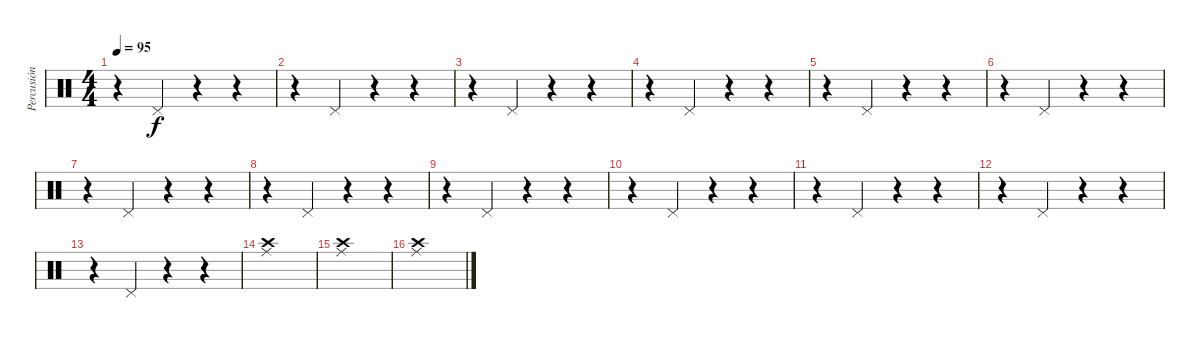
\track ("Percusión" "Percusión") {instrument percussion}
\staff {score}
\articulation defaults
\ts (4 4)
\tempo 95
\clef neutral
\ks c
r.4{dy f} "Pedal Hi-Hat (hit)".4 r.4 r.4 |
r.4 "Pedal Hi-Hat (hit)".4 r.4 r.4 |
r.4 "Pedal Hi-Hat (hit)".4 r.4 r.4 |
r.4 "Pedal Hi-Hat (hit)".4 r.4 r.4 |
r.4 "Pedal Hi-Hat (hit)".4 r.4 r.4 |
r.4 "Pedal Hi-Hat (hit)".4 r.4 r.4 |
r.4 "Pedal Hi-Hat (hit)".4 r.4 r.4 |
r.4 "Pedal Hi-Hat (hit)".4 r.4 r.4 |
r.4 "Pedal Hi-Hat (hit)".4 r.4 r.4 |
r.4 "Pedal Hi-Hat (hit)".4 r.4 r.4 |
r.4 "Pedal Hi-Hat (hit)".4 r.4 r.4 |
r.4 "Pedal Hi-Hat (hit)".4 r.4 r.4 |
r.4 "Pedal Hi-Hat (hit)".4 r.4 r.4 |
("Crash high (hit)" "Ride (middle)").1 |
("Crash high (hit)" "Ride (middle)").1 |
("Crash high (hit)" "Ride (middle)").1
